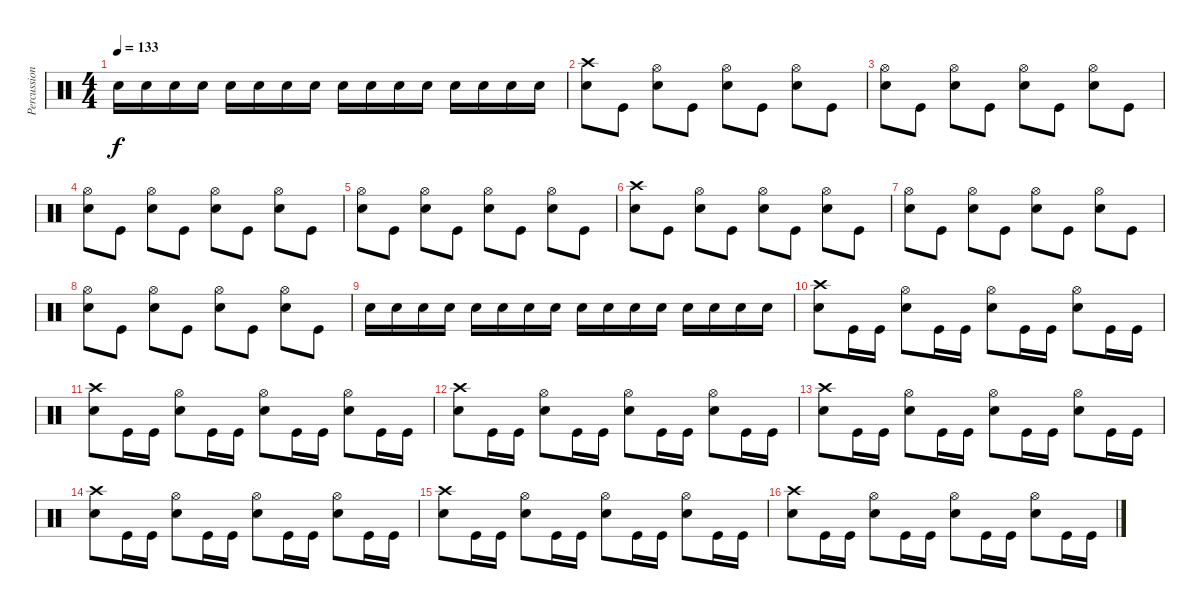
\track ("Percussion" "Percussion") {instrument percussion}
\staff {score}
\articulation defaults
\ts (4 4)
\tempo 133
\clef neutral
\ks c "Electric Snare (hit)".16{dy f} "Electric Snare (hit)".16 "Electric Snare (hit)".16 "Electric Snare (hit)".16 "Electric Snare (hit)".16 "Electric Snare (hit)".16 "Electric Snare (hit)".16 "Electric Snare (hit)".16 "Electric Snare (hit)".16 "Electric Snare (hit)".16 "Electric Snare (hit)".16 "Electric Snare (hit)".16 "Electric Snare (hit)".16 "Electric Snare (hit)".16 "Electric Snare (hit)".16 "Electric Snare (hit)".16
|
("Crash high (hit)" "Electric Snare (hit)").8 "Kick (hit)".8 ("Hi-Hat (open)" "Electric Snare (hit)").8 "Kick (hit)".8 ("Hi-Hat (open)" "Electric Snare (hit)").8 "Kick (hit)".8 ("Hi-Hat (open)" "Electric Snare (hit)").8 "Kick (hit)".8 |
("Hi-Hat (open)" "Electric Snare (hit)").8 "Kick (hit)".8 ("Hi-Hat (open)" "Electric Snare (hit)").8 "Kick (hit)".8 ("Hi-Hat (open)" "Electric Snare (hit)").8 "Kick (hit)".8 ("Hi-Hat (open)" "Electric Snare (hit)").8 "Kick (hit)".8 |
("Hi-Hat (open)" "Electric Snare (hit)").8 "Kick (hit)".8 ("Hi-Hat (open)" "Electric Snare (hit)").8 "Kick (hit)".8 ("Hi-Hat (open)" "Electric Snare (hit)").8 "Kick (hit)".8 ("Hi-Hat (open)" "Electric Snare (hit)").8 "Kick (hit)".8 |
("Hi-Hat (open)" "Electric Snare (hit)").8 "Kick (hit)".8 ("Hi-Hat (open)" "Electric Snare (hit)").8 "Kick (hit)".8 ("Hi-Hat (open)" "Electric Snare (hit)").8 "Kick (hit)".8 ("Hi-Hat (open)" "Electric Snare (hit)").8 "Kick (hit)".8 |
("Crash high (hit)" "Electric Snare (hit)").8 "Kick (hit)".8 ("Hi-Hat (open)" "Electric Snare (hit)").8 "Kick (hit)".8 ("Hi-Hat (open)" "Electric Snare (hit)").8 "Kick (hit)".8 ("Hi-Hat (open)" "Electric Snare (hit)").8 "Kick (hit)".8 |
("Hi-Hat (open)" "Electric Snare (hit)").8 "Kick (hit)".8 ("Hi-Hat (open)" "Electric Snare (hit)").8 "Kick (hit)".8 ("Hi-Hat (open)" "Electric Snare (hit)").8 "Kick (hit)".8 ("Hi-Hat (open)" "Electric Snare (hit)").8 "Kick (hit)".8 |
("Hi-Hat (open)" "Electric Snare (hit)").8 "Kick (hit)".8 ("Hi-Hat (open)" "Electric Snare (hit)").8 "Kick (hit)".8 ("Hi-Hat (open)" "Electric Snare (hit)").8 "Kick (hit)".8 ("Hi-Hat (open)" "Electric Snare (hit)").8 "Kick (hit)".8 |
"Electric Snare (hit)".16 "Electric Snare (hit)".16 "Electric Snare (hit)".16 "Electric Snare (hit)".16 "Electric Snare (hit)".16 "Electric Snare (hit)".16 "Electric Snare (hit)".16 "Electric Snare (hit)".16 "Electric Snare (hit)".16 "Electric Snare (hit)".16 "Electric Snare (hit)".16 "Electric Snare (hit)".16 "Electric Snare (hit)".16 "Electric Snare (hit)".16 "Electric Snare (hit)".16 "Electric Snare (hit)".16 |
("Crash high (hit)" "Electric Snare (hit)").8 "Kick (hit)".16 "Kick (hit)".16 ("Hi-Hat (open)" "Electric Snare (hit)").8 "Kick (hit)".16 "Kick (hit)".16 ("Hi-Hat (open)" "Electric Snare (hit)").8 "Kick (hit)".16 "Kick (hit)".16 ("Hi-Hat (open)" "Electric Snare (hit)").8 "Kick (hit)".16 "Kick (hit)".16 |
("Crash high (hit)" "Electric Snare (hit)").8 "Kick (hit)".16 "Kick (hit)".16 ("Hi-Hat (open)" "Electric Snare (hit)").8 "Kick (hit)".16 "Kick (hit)".16 ("Hi-Hat (open)" "Electric Snare (hit)").8 "Kick (hit)".16 "Kick (hit)".16 ("Hi-Hat (open)" "Electric Snare (hit)").8 "Kick (hit)".16 "Kick (hit)".16 |
("Crash high (hit)" "Electric Snare (hit)").8 "Kick (hit)".16 "Kick (hit)".16 ("Hi-Hat (open)" "Electric Snare (hit)").8 "Kick (hit)".16 "Kick (hit)".16 ("Hi-Hat (open)" "Electric Snare (hit)").8 "Kick (hit)".16 "Kick (hit)".16 ("Hi-Hat (open)" "Electric Snare (hit)").8 "Kick (hit)".16 "Kick (hit)".16 |
("Crash high (hit)" "Electric Snare (hit)").8 "Kick (hit)".16 "Kick (hit)".16 ("Hi-Hat (open)" "Electric Snare (hit)").8 "Kick (hit)".16 "Kick (hit)".16 ("Hi-Hat (open)" "Electric Snare (hit)").8 "Kick (hit)".16 "Kick (hit)".16 ("Hi-Hat (open)" "Electric Snare (hit)").8 "Kick (hit)".16 "Kick (hit)".16 |
("Crash high (hit)" "Electric Snare (hit)").8 "Kick (hit)".16 "Kick (hit)".16 ("Hi-Hat (open)" "Electric Snare (hit)").8 "Kick (hit)".16 "Kick (hit)".16 ("Hi-Hat (open)" "Electric Snare (hit)").8 "Kick (hit)".16 "Kick (hit)".16 ("Hi-Hat (open)" "Electric Snare (hit)").8 "Kick (hit)".16 "Kick (hit)".16 |
("Crash high (hit)" "Electric Snare (hit)").8 "Kick (hit)".16 "Kick (hit)".16 ("Hi-Hat (open)" "Electric Snare (hit)").8 "Kick (hit)".16 "Kick (hit)".16 ("Hi-Hat (open)" "Electric Snare (hit)").8 "Kick (hit)".16 "Kick (hit)".16 ("Hi-Hat (open)" "Electric Snare (hit)").8 "Kick (hit)".16 "Kick (hit)".16 |
("Crash high (hit)" "Electric Snare (hit)").8 "Kick (hit)".16 "Kick (hit)".16 ("Hi-Hat (open)" "Electric Snare (hit)").8 "Kick (hit)".16 "Kick (hit)".16 ("Hi-Hat (open)" "Electric Snare (hit)").8 "Kick (hit)".16 "Kick (hit)".16 ("Hi-Hat (open)" "Electric Snare (hit)").8 "Kick (hit)".16 "Kick (hit)".16
